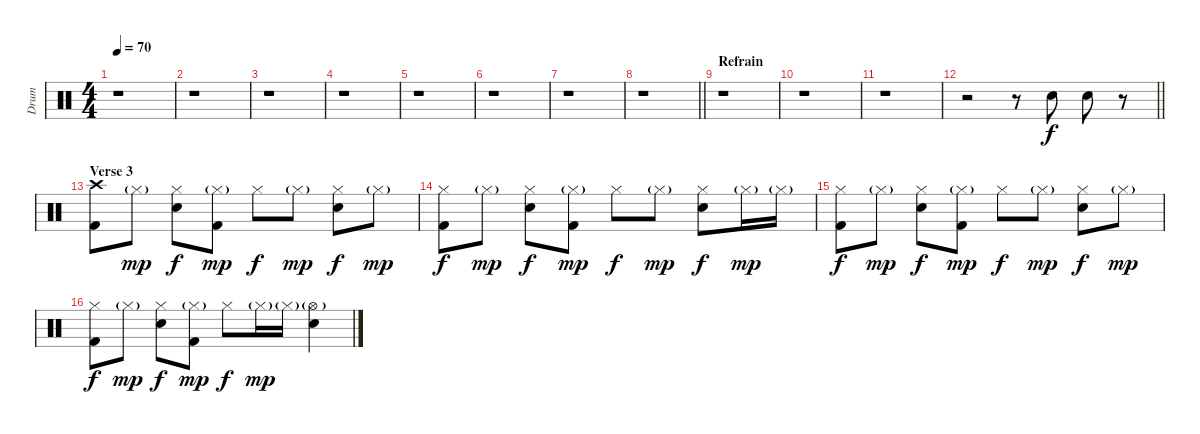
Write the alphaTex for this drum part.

\track ("Drum" "Drum") {instrument percussion}
\staff {score}
\articulation defaults
\ts (4 4)
\tempo 70
\clef neutral
\ks c
r.1{dy f} |
r.1 |
r.1 |
r.1 |
r.1 |
r.1 |
r.1 |
\barLineRight lightlight
r.1 |
\section ("" "Refrain")
r.1 |
r.1 |
r.1 |
\barLineRight lightlight
r.2 r.8 "Snare (hit) 2".8 "Snare (hit) 2".8 r.8 |
\section ("" "Verse 3")
("Crash high (hit)" "Kick (hit) 2").8 "Hi-Hat (closed)"{g}.8{dy mp} ("Hi-Hat (closed)" "Snare (hit) 2").8{dy f} ("Hi-Hat (closed)"{g} "Kick (hit) 2").8{dy mp} "Hi-Hat (closed)".8{dy f} "Hi-Hat (closed)"{g}.8{dy mp} ("Hi-Hat (closed)" "Snare (hit) 2").8{dy f} "Hi-Hat (closed)"{g}.8{dy mp} |
("Hi-Hat (closed)" "Kick (hit) 2").8{dy f} "Hi-Hat (closed)"{g}.8{dy mp} ("Hi-Hat (closed)" "Snare (hit) 2").8{dy f} ("Hi-Hat (closed)"{g} "Kick (hit) 2").8{dy mp} "Hi-Hat (closed)".8{dy f} "Hi-Hat (closed)"{g}.8{dy mp} ("Hi-Hat (closed)" "Snare (hit) 2").8{dy f} "Hi-Hat (closed)"{g}.16{dy mp} "Hi-Hat (closed)"{g}.16 |
("Hi-Hat (closed)" "Kick (hit) 2").8{dy f} "Hi-Hat (closed)"{g}.8{dy mp} ("Hi-Hat (closed)" "Snare (hit) 2").8{dy f} ("Hi-Hat (closed)"{g} "Kick (hit) 2").8{dy mp} "Hi-Hat (closed)".8{dy f} "Hi-Hat (closed)"{g}.8{dy mp} ("Hi-Hat (closed)" "Snare (hit) 2").8{dy f} "Hi-Hat (closed)"{g}.8{dy mp} |
("Hi-Hat (closed)" "Kick (hit) 2").8{dy f} "Hi-Hat (closed)"{g}.8{dy mp} ("Hi-Hat (closed)" "Snare (hit) 2").8{dy f} ("Hi-Hat (closed)"{g} "Kick (hit) 2").8{dy mp} "Hi-Hat (closed)".8{dy f} "Hi-Hat (closed)"{g}.16{dy mp} "Hi-Hat (closed)"{g}.16 ("Hi-Hat (open)"{g} "Snare (hit) 2").4
